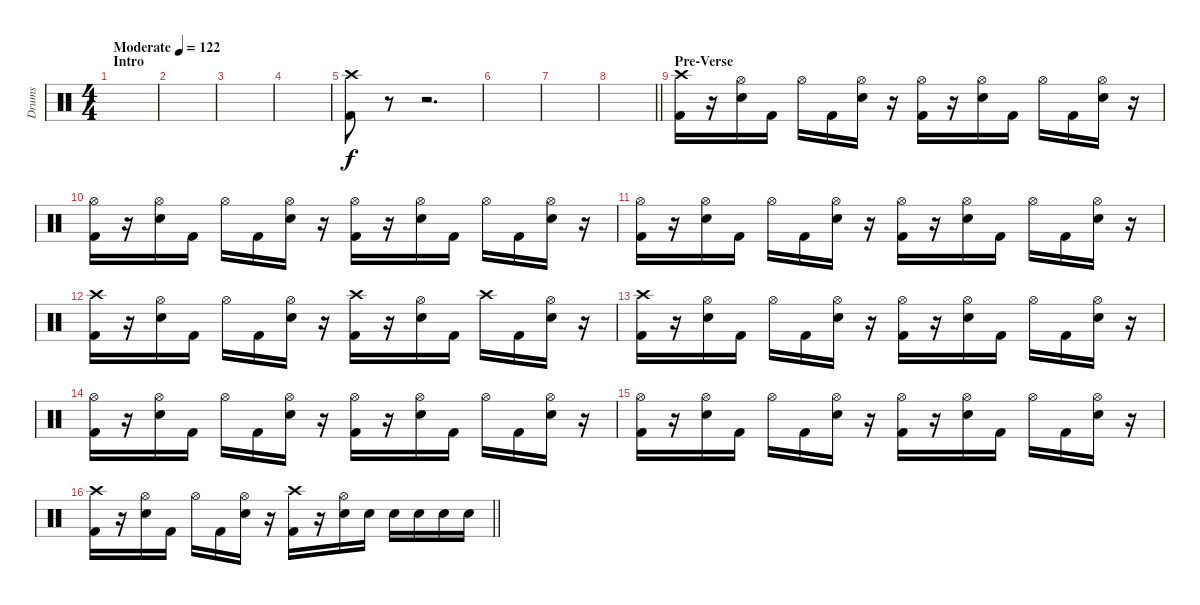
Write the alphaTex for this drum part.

\track ("Drums" "Drums") {instrument percussion}
\staff {score}
\articulation defaults
\ts (4 4)
\section ("" "Intro")
\tempo (122 "Moderate")
\clef neutral
\ks c
|
|
|
|
("Crash high (hit)" "Kick (hit) 2").8 r.8 r.2{d} |
|
|
\barLineRight lightlight
|
\section ("" "Pre-Verse")
("Crash high (hit)" "Kick (hit) 2").16 r.16 ("Hi-Hat (open)" "Snare (hit) 2").16 "Kick (hit) 2".16 "Hi-Hat (open)".16 "Kick (hit) 2".16 ("Hi-Hat (open)" "Snare (hit) 2").16 r.16 ("Hi-Hat (open)" "Kick (hit) 2").16 r.16 ("Hi-Hat (open)" "Snare (hit) 2").16 "Kick (hit) 2".16 "Hi-Hat (open)".16 "Kick (hit) 2".16 ("Hi-Hat (open)" "Snare (hit) 2").16 r.16 |
("Hi-Hat (open)" "Kick (hit) 2").16 r.16 ("Hi-Hat (open)" "Snare (hit) 2").16 "Kick (hit) 2".16 "Hi-Hat (open)".16 "Kick (hit) 2".16 ("Hi-Hat (open)" "Snare (hit) 2").16 r.16 ("Hi-Hat (open)" "Kick (hit) 2").16 r.16 ("Hi-Hat (open)" "Snare (hit) 2").16 "Kick (hit) 2".16 "Hi-Hat (open)".16 "Kick (hit) 2".16 ("Hi-Hat (open)" "Snare (hit) 2").16 r.16 |
("Hi-Hat (open)" "Kick (hit) 2").16 r.16 ("Hi-Hat (open)" "Snare (hit) 2").16 "Kick (hit) 2".16 "Hi-Hat (open)".16 "Kick (hit) 2".16 ("Hi-Hat (open)" "Snare (hit) 2").16 r.16 ("Hi-Hat (open)" "Kick (hit) 2").16 r.16 ("Hi-Hat (open)" "Snare (hit) 2").16 "Kick (hit) 2".16 "Hi-Hat (open)".16 "Kick (hit) 2".16 ("Hi-Hat (open)" "Snare (hit) 2").16 r.16 |
("Crash high (hit)" "Kick (hit) 2").16 r.16 ("Hi-Hat (open)" "Snare (hit) 2").16 "Kick (hit) 2".16 "Hi-Hat (open)".16 "Kick (hit) 2".16 ("Hi-Hat (open)" "Snare (hit) 2").16 r.16 ("Crash high (hit)" "Kick (hit) 2").16 r.16 ("Hi-Hat (open)" "Snare (hit) 2").16 "Kick (hit) 2".16 "Crash high (hit)".16 "Kick (hit) 2".16 ("Hi-Hat (open)" "Snare (hit) 2").16 r.16 |
("Crash high (hit)" "Kick (hit) 2").16 r.16 ("Hi-Hat (open)" "Snare (hit) 2").16 "Kick (hit) 2".16 "Hi-Hat (open)".16 "Kick (hit) 2".16 ("Hi-Hat (open)" "Snare (hit) 2").16 r.16 ("Hi-Hat (open)" "Kick (hit) 2").16 r.16 ("Hi-Hat (open)" "Snare (hit) 2").16 "Kick (hit) 2".16 "Hi-Hat (open)".16 "Kick (hit) 2".16 ("Hi-Hat (open)" "Snare (hit) 2").16 r.16 |
("Hi-Hat (open)" "Kick (hit) 2").16 r.16 ("Hi-Hat (open)" "Snare (hit) 2").16 "Kick (hit) 2".16 "Hi-Hat (open)".16 "Kick (hit) 2".16 ("Hi-Hat (open)" "Snare (hit) 2").16 r.16 ("Hi-Hat (open)" "Kick (hit) 2").16 r.16 ("Hi-Hat (open)" "Snare (hit) 2").16 "Kick (hit) 2".16 "Hi-Hat (open)".16 "Kick (hit) 2".16 ("Hi-Hat (open)" "Snare (hit) 2").16 r.16 |
("Hi-Hat (open)" "Kick (hit) 2").16 r.16 ("Hi-Hat (open)" "Snare (hit) 2").16 "Kick (hit) 2".16 "Hi-Hat (open)".16 "Kick (hit) 2".16 ("Hi-Hat (open)" "Snare (hit) 2").16 r.16 ("Hi-Hat (open)" "Kick (hit) 2").16 r.16 ("Hi-Hat (open)" "Snare (hit) 2").16 "Kick (hit) 2".16 "Hi-Hat (open)".16 "Kick (hit) 2".16 ("Hi-Hat (open)" "Snare (hit) 2").16 r.16 |
\barLineRight lightlight
("Crash high (hit)" "Kick (hit) 2").16 r.16 ("Hi-Hat (open)" "Snare (hit) 2").16 "Kick (hit) 2".16 "Hi-Hat (open)".16 "Kick (hit) 2".16 ("Hi-Hat (open)" "Snare (hit) 2").16 r.16 ("Crash high (hit)" "Kick (hit) 2").16 r.16 ("Hi-Hat (open)" "Snare (hit) 2").16 "Snare (hit) 2".16 "Snare (hit) 2".16 "Snare (hit) 2".16 "Snare (hit) 2".16 "Snare (hit) 2".16
